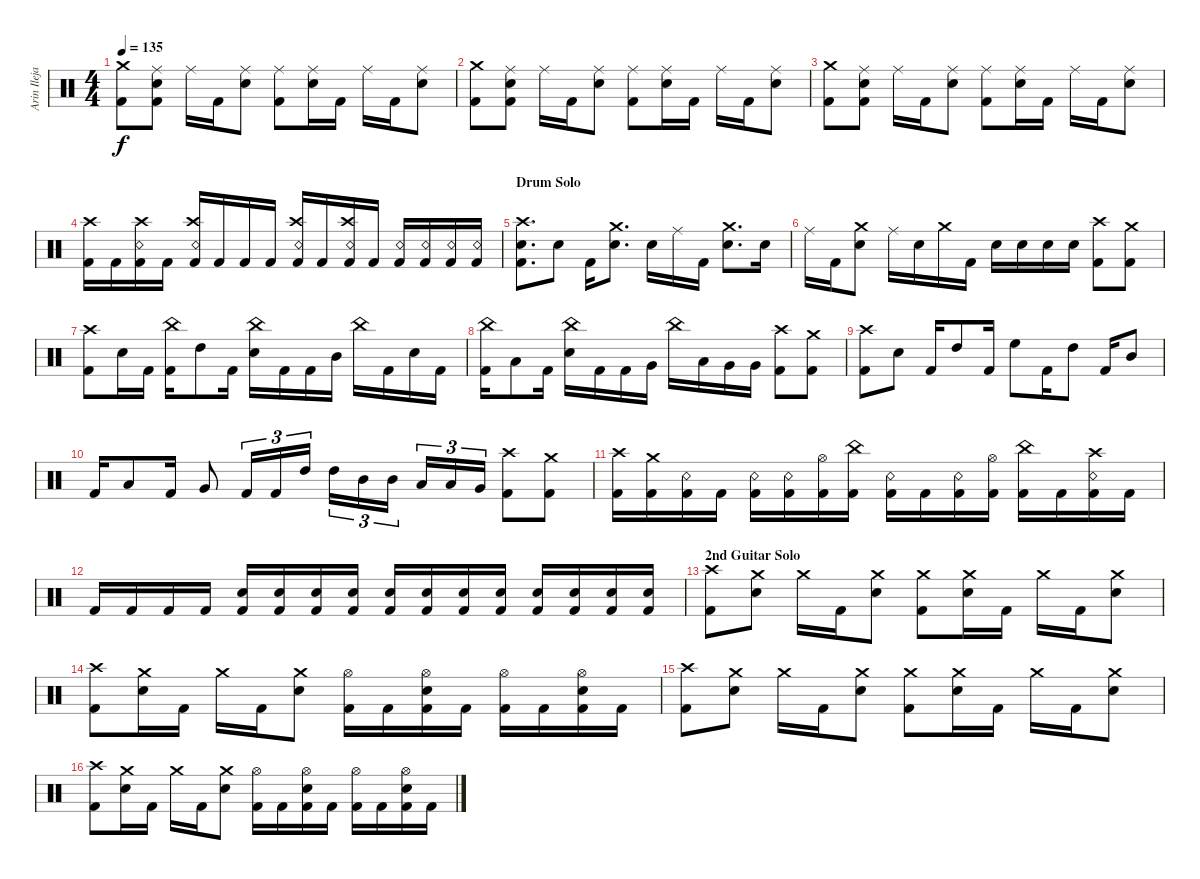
\track ("Arin Ilejay" "Arin Ileja") {instrument percussion}
\staff {score}
\articulation defaults
\ts (4 4)
\tempo 135
\clef neutral
\ks c
("Kick (hit) 2" "Crash medium (hit)").8{dy f} ("Ride (middle)" "Snare (hit) 2" "Kick (hit) 2").8 "Ride (middle)".16 "Kick (hit) 2".16 ("Ride (middle)" "Snare (hit) 2").8 ("Ride (middle)" "Kick (hit) 2").8 ("Ride (middle)" "Snare (hit) 2").16 "Kick (hit) 2".16 "Ride (middle)".16 "Kick (hit) 2".16 ("Ride (middle)" "Snare (hit) 2").8 |
("Kick (hit) 2" "Crash medium (hit)").8 ("Ride (middle)" "Snare (hit) 2" "Kick (hit) 2").8 "Ride (middle)".16 "Kick (hit) 2".16 ("Ride (middle)" "Snare (hit) 2").8 ("Ride (middle)" "Kick (hit) 2").8 ("Ride (middle)" "Snare (hit) 2").16 "Kick (hit) 2".16 "Ride (middle)".16 "Kick (hit) 2".16 ("Ride (middle)" "Snare (hit) 2").8 |
("Kick (hit) 2" "Crash medium (hit)").8 ("Ride (middle)" "Snare (hit) 2" "Kick (hit) 2").8 "Ride (middle)".16 "Kick (hit) 2".16 ("Ride (middle)" "Snare (hit) 2").8 ("Kick (hit) 2" "Ride (middle)").8 ("Ride (middle)" "Snare (hit) 2").16 "Kick (hit) 2".16 "Ride (middle)".16 "Kick (hit) 2".16 ("Ride (middle)" "Snare (hit) 2").8 |
("Kick (hit) 2" "Crash high (hit)").16 "Kick (hit) 2".16 ("Kick (hit) 2" "Snare (rim shot)" "Crash high (hit)").16 "Kick (hit) 2".16 ("Kick (hit) 2" "Snare (rim shot)" "Crash high (hit)").16 "Kick (hit) 2".16 "Kick (hit) 2".16 "Kick (hit) 2".16 ("Kick (hit) 2" "Snare (rim shot)" "Crash high (hit)").16 "Kick (hit) 2".16 ("Kick (hit) 2" "Snare (rim shot)" "Crash high (hit)").16 "Kick (hit) 2".16 ("Kick (hit) 2" "Snare (rim shot)").16 ("Kick (hit) 2" "Snare (rim shot)").16 ("Kick (hit) 2" "Snare (rim shot)").16 ("Kick (hit) 2" "Snare (rim shot)").16 |
\section ("" "Drum Solo")
("Kick (hit) 2" "Snare (hit) 2" "Crash high (hit)").8{d} "Snare (hit) 2".8 "Kick (hit) 2".16 ("Snare (hit) 2" "Crash medium (hit)").8{d} "Snare (hit) 2".16 "Ride (middle)".16 "Kick (hit) 2".16 ("Crash medium (hit)" "Snare (hit) 2").8{d} "Snare (hit) 2".16 |
"Ride (middle)".16 "Kick (hit) 2".16 ("Crash medium (hit)" "Snare (hit) 2").8 "Ride (middle)".16 "Snare (hit) 2".16 "Crash medium (hit)".16 "Kick (hit) 2".16 "Snare (hit) 2".16 "Snare (hit) 2".16 "Snare (hit) 2".16 "Snare (hit) 2".16 ("Crash high (hit)" "Kick (hit) 2").8 ("Kick (hit) 2" "Crash medium (hit)").8 |
("Kick (hit) 2" "Crash high (hit)").8 "Snare (hit) 2".16 "Kick (hit) 2".16 ("Kick (hit) 2" "China (hit)").16 "High Tom (hit)".8 "Kick (hit) 2".16 ("Snare (hit) 2" "China (hit)").16 "Kick (hit) 2".16 "Kick (hit) 2".16 "Mid Tom (hit)".16 "China (hit)".16 "Kick (hit) 2".16 "Snare (hit) 2".16 "Kick (hit) 2".16 |
("Kick (hit) 2" "China (hit)").16 "Low Tom (hit)".8 "Kick (hit) 2".16 ("Snare (hit) 2" "China (hit)").16 "Kick (hit) 2".16 "Kick (hit) 2".16 "Very Low Tom (hit)".16 "China (hit)".16 "Low Tom (hit)".16 "Very Low Tom (hit)".16 "Very Low Tom (hit)".16 ("Kick (hit) 2" "Crash high (hit)").8 ("Kick (hit) 2" "Crash medium (hit)").8 |
("Kick (hit) 2" "Crash high (hit)").8 "Snare (hit) 2".8 "Kick (hit) 2".16 "High Tom (hit)".8 "Kick (hit) 2".16 "High Floor Tom (hit)".8 "Kick (hit) 2".16 "High Tom (hit)".8 "Kick (hit) 2".16 "Mid Tom (hit)".8 |
"Kick (hit) 2".16 "Low Tom (hit)".8 "Kick (hit) 2".16 "Very Low Tom (hit)".8 "Kick (hit) 2".16{tu (3 2)} "Kick (hit) 2".16{tu (3 2)} "High Tom (hit)".16{tu (3 2)} "High Tom (hit)".16{tu (3 2)} "Mid Tom (hit)".16{tu (3 2)} "Mid Tom (hit)".16{tu (3 2)} "Low Tom (hit)".16{tu (3 2)} "Low Tom (hit)".16{tu (3 2)} "Very Low Tom (hit)".16{tu (3 2)} ("Kick (hit) 2" "Crash high (hit)").8 ("Kick (hit) 2" "Crash medium (hit)").8 |
("Kick (hit) 2" "Crash high (hit)").16 ("Kick (hit) 2" "Crash medium (hit)").16 ("Kick (hit) 2" "Snare (rim shot)").16 "Kick (hit) 2".16 ("Kick (hit) 2" "Snare (rim shot)").16 ("Kick (hit) 2" "Snare (rim shot)").16 ("Kick (hit) 2" "Hi-Hat (open)").16 ("Kick (hit) 2" "China (hit)").16 ("Kick (hit) 2" "Snare (rim shot)").16 "Kick (hit) 2".16 ("Kick (hit) 2" "Snare (rim shot)").16 ("Kick (hit) 2" "Hi-Hat (open)").16 ("Kick (hit) 2" "China (hit)").16 "Kick (hit) 2".16 ("Kick (hit) 2" "Snare (rim shot)" "Crash high (hit)").16 "Kick (hit) 2".16 |
"Kick (hit) 2".16 "Kick (hit) 2".16 "Kick (hit) 2".16 "Kick (hit) 2".16 ("Kick (hit) 2" "Snare (hit) 2").16 ("Kick (hit) 2" "Snare (hit) 2").16 ("Kick (hit) 2" "Snare (hit) 2").16 ("Kick (hit) 2" "Snare (hit) 2").16 ("Kick (hit) 2" "Snare (hit) 2").16 ("Kick (hit) 2" "Snare (hit) 2").16 ("Kick (hit) 2" "Snare (hit) 2").16 ("Kick (hit) 2" "Snare (hit) 2").16 ("Kick (hit) 2" "Snare (hit) 2").16 ("Kick (hit) 2" "Snare (hit) 2").16 ("Kick (hit) 2" "Snare (hit) 2").16 ("Kick (hit) 2" "Snare (hit) 2").16 |
\section ("" "2nd Guitar Solo")
("Kick (hit) 2" "Crash high (hit)").8 ("Crash medium (hit)" "Snare (hit) 2").8 "Crash medium (hit)".16 "Kick (hit) 2".16 ("Snare (hit) 2" "Crash medium (hit)").8 ("Crash medium (hit)" "Kick (hit) 2").8 ("Snare (hit) 2" "Crash medium (hit)").16 "Kick (hit) 2".16 "Crash medium (hit)".16 "Kick (hit) 2".16 ("Snare (hit) 2" "Crash medium (hit)").8 |
("Kick (hit) 2" "Crash high (hit)").8 ("Crash medium (hit)" "Snare (hit) 2").16 "Kick (hit) 2".16 "Crash medium (hit)".16 "Kick (hit) 2".16 ("Snare (hit) 2" "Crash medium (hit)").8 ("Kick (hit) 2" "Hi-Hat (open)").16 "Kick (hit) 2".16 ("Snare (hit) 2" "Kick (hit) 2" "Hi-Hat (open)").16 "Kick (hit) 2".16 ("Kick (hit) 2" "Hi-Hat (open)").16 "Kick (hit) 2".16 ("Snare (hit) 2" "Kick (hit) 2" "Hi-Hat (open)").16 "Kick (hit) 2".16 |
("Kick (hit) 2" "Crash high (hit)").8 ("Crash medium (hit)" "Snare (hit) 2").8 "Crash medium (hit)".16 "Kick (hit) 2".16 ("Snare (hit) 2" "Crash medium (hit)").8 ("Crash medium (hit)" "Kick (hit) 2").8 ("Snare (hit) 2" "Crash medium (hit)").16 "Kick (hit) 2".16 "Crash medium (hit)".16 "Kick (hit) 2".16 ("Snare (hit) 2" "Crash medium (hit)").8 |
("Kick (hit) 2" "Crash high (hit)").8 ("Crash medium (hit)" "Snare (hit) 2").16 "Kick (hit) 2".16 "Crash medium (hit)".16 "Kick (hit) 2".16 ("Snare (hit) 2" "Crash medium (hit)").8 ("Kick (hit) 2" "Hi-Hat (open)").16 "Kick (hit) 2".16 ("Snare (hit) 2" "Kick (hit) 2" "Hi-Hat (open)").16 "Kick (hit) 2".16 ("Kick (hit) 2" "Hi-Hat (open)").16 "Kick (hit) 2".16 ("Snare (hit) 2" "Kick (hit) 2" "Hi-Hat (open)").16 "Kick (hit) 2".16
